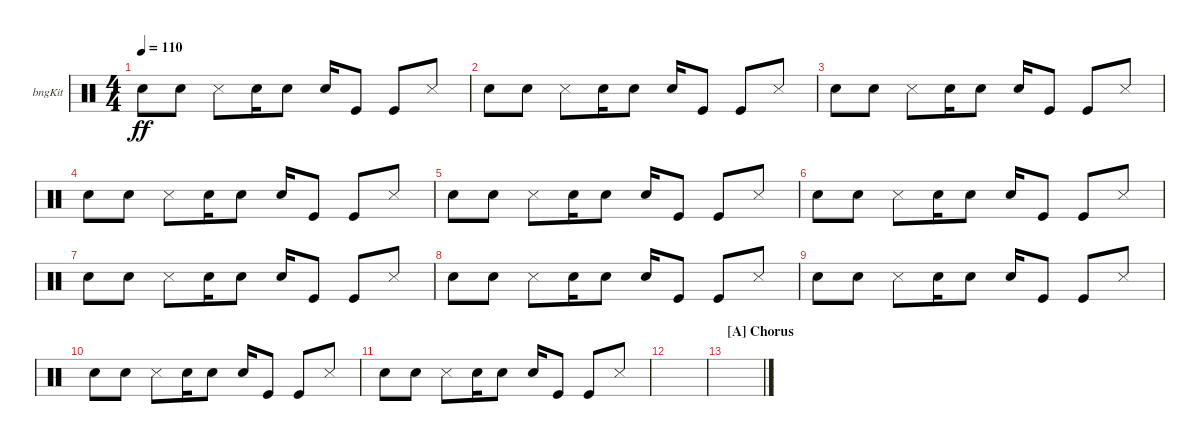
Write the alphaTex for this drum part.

\defaultSystemsLayout 4
\bracketExtendMode groupsimilarinstruments
\firstSystemTrackNameOrientation horizontal
\otherSystemsTrackNameOrientation horizontal
\track ("Bongos" "bngKit") {instrument percussion}
\staff {score}
\articulation defaults
\ts (4 4)
\tempo 110
\clef neutral
\ks c "Snare (hit) 2".8{dy ff} "Snare (hit) 2".8 "Snare (side stick) 3".8 "Snare (hit) 2".16 "Snare (hit) 2".8 "Snare (hit) 2".16 "Kick (hit)".8 "Kick (hit)".8 "Snare (side stick) 3".8
|
"Snare (hit) 2".8 "Snare (hit) 2".8 "Snare (side stick) 3".8 "Snare (hit) 2".16 "Snare (hit) 2".8 "Snare (hit) 2".16 "Kick (hit)".8 "Kick (hit)".8 "Snare (side stick) 3".8 |
"Snare (hit) 2".8 "Snare (hit) 2".8 "Snare (side stick) 3".8 "Snare (hit) 2".16 "Snare (hit) 2".8 "Snare (hit) 2".16 "Kick (hit)".8 "Kick (hit)".8 "Snare (side stick) 3".8 |
"Snare (hit) 2".8 "Snare (hit) 2".8 "Snare (side stick) 3".8 "Snare (hit) 2".16 "Snare (hit) 2".8 "Snare (hit) 2".16 "Kick (hit)".8 "Kick (hit)".8 "Snare (side stick) 3".8 |
"Snare (hit) 2".8 "Snare (hit) 2".8 "Snare (side stick) 3".8 "Snare (hit) 2".16 "Snare (hit) 2".8 "Snare (hit) 2".16 "Kick (hit)".8 "Kick (hit)".8 "Snare (side stick) 3".8 |
"Snare (hit) 2".8 "Snare (hit) 2".8 "Snare (side stick) 3".8 "Snare (hit) 2".16 "Snare (hit) 2".8 "Snare (hit) 2".16 "Kick (hit)".8 "Kick (hit)".8 "Snare (side stick) 3".8 |
"Snare (hit) 2".8 "Snare (hit) 2".8 "Snare (side stick) 3".8 "Snare (hit) 2".16 "Snare (hit) 2".8 "Snare (hit) 2".16 "Kick (hit)".8 "Kick (hit)".8 "Snare (side stick) 3".8 |
"Snare (hit) 2".8 "Snare (hit) 2".8 "Snare (side stick) 3".8 "Snare (hit) 2".16 "Snare (hit) 2".8 "Snare (hit) 2".16 "Kick (hit)".8 "Kick (hit)".8 "Snare (side stick) 3".8 |
"Snare (hit) 2".8 "Snare (hit) 2".8 "Snare (side stick) 3".8 "Snare (hit) 2".16 "Snare (hit) 2".8 "Snare (hit) 2".16 "Kick (hit)".8 "Kick (hit)".8 "Snare (side stick) 3".8 |
"Snare (hit) 2".8 "Snare (hit) 2".8 "Snare (side stick) 3".8 "Snare (hit) 2".16 "Snare (hit) 2".8 "Snare (hit) 2".16 "Kick (hit)".8 "Kick (hit)".8 "Snare (side stick) 3".8 |
"Snare (hit) 2".8 "Snare (hit) 2".8 "Snare (side stick) 3".8 "Snare (hit) 2".16 "Snare (hit) 2".8 "Snare (hit) 2".16 "Kick (hit)".8 "Kick (hit)".8 "Snare (side stick) 3".8 |
|
\section ("A" "Chorus")
